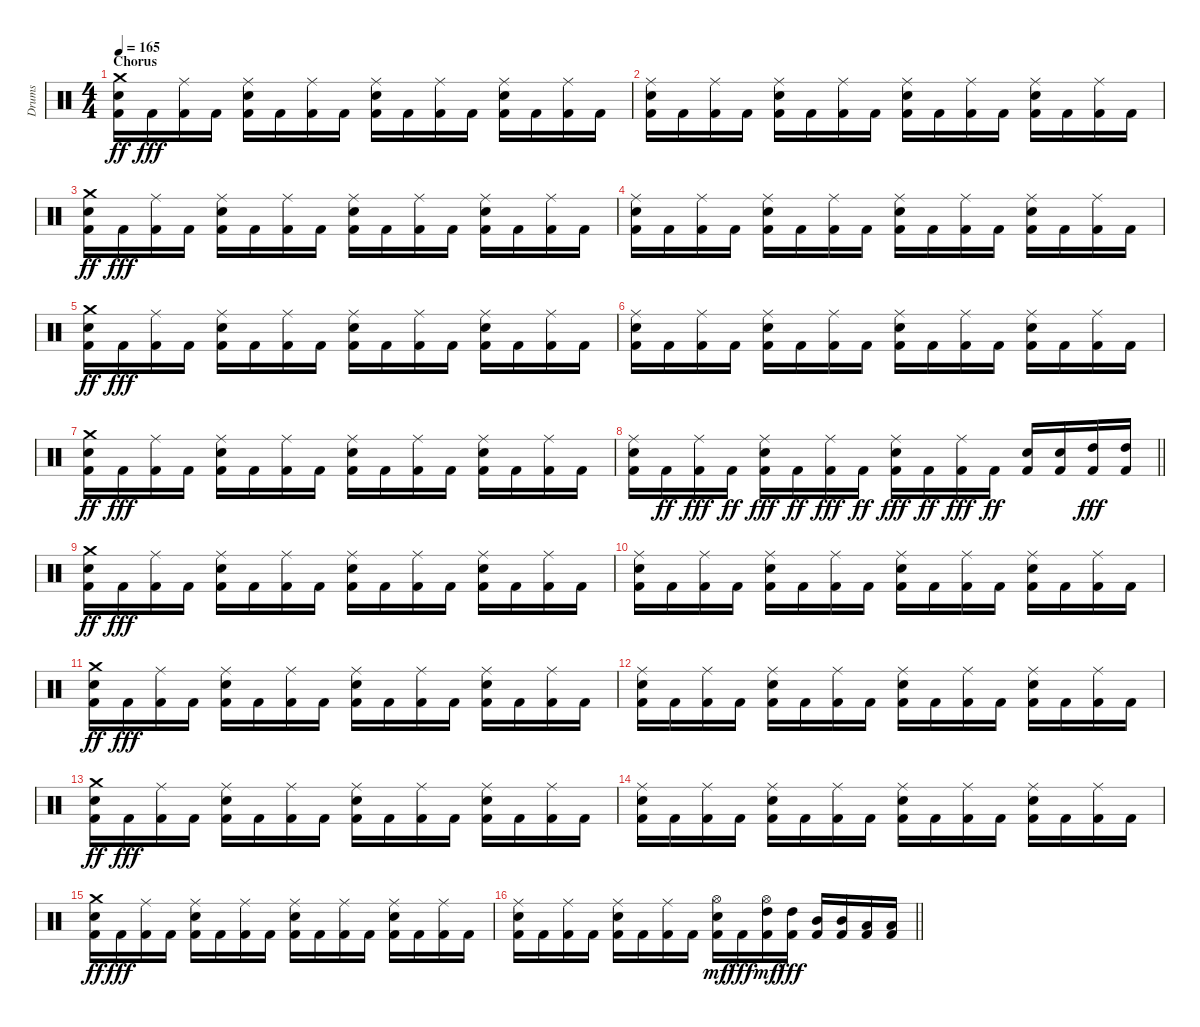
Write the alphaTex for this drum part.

\track ("Drums" "Drums") {instrument percussion}
\staff {score}
\articulation defaults
\ts (4 4)
\section ("" "Chorus")
\tempo 165
\clef neutral
\ks c
("Kick (hit) 2" "Snare (hit) 2" "Crash medium (hit)").16{dy ff} "Kick (hit) 2".16{dy fff} ("Kick (hit) 2" "Ride (middle)").16 "Kick (hit) 2".16 ("Kick (hit) 2" "Snare (hit) 2" "Ride (middle)").16 "Kick (hit) 2".16 ("Kick (hit) 2" "Ride (middle)").16 "Kick (hit) 2".16 ("Kick (hit) 2" "Snare (hit) 2" "Ride (middle)").16 "Kick (hit) 2".16 ("Kick (hit) 2" "Ride (middle)").16 "Kick (hit) 2".16 ("Kick (hit) 2" "Snare (hit) 2" "Ride (middle)").16 "Kick (hit) 2".16 ("Kick (hit) 2" "Ride (middle)").16 "Kick (hit) 2".16 |
("Kick (hit) 2" "Snare (hit) 2" "Ride (middle)").16 "Kick (hit) 2".16 ("Kick (hit) 2" "Ride (middle)").16 "Kick (hit) 2".16 ("Kick (hit) 2" "Snare (hit) 2" "Ride (middle)").16 "Kick (hit) 2".16 ("Kick (hit) 2" "Ride (middle)").16 "Kick (hit) 2".16 ("Kick (hit) 2" "Snare (hit) 2" "Ride (middle)").16 "Kick (hit) 2".16 ("Kick (hit) 2" "Ride (middle)").16 "Kick (hit) 2".16 ("Kick (hit) 2" "Snare (hit) 2" "Ride (middle)").16 "Kick (hit) 2".16 ("Kick (hit) 2" "Ride (middle)").16 "Kick (hit) 2".16 |
("Kick (hit) 2" "Snare (hit) 2" "Crash medium (hit)").16{dy ff} "Kick (hit) 2".16{dy fff} ("Kick (hit) 2" "Ride (middle)").16 "Kick (hit) 2".16 ("Kick (hit) 2" "Snare (hit) 2" "Ride (middle)").16 "Kick (hit) 2".16 ("Kick (hit) 2" "Ride (middle)").16 "Kick (hit) 2".16 ("Kick (hit) 2" "Snare (hit) 2" "Ride (middle)").16 "Kick (hit) 2".16 ("Kick (hit) 2" "Ride (middle)").16 "Kick (hit) 2".16 ("Kick (hit) 2" "Snare (hit) 2" "Ride (middle)").16 "Kick (hit) 2".16 ("Kick (hit) 2" "Ride (middle)").16 "Kick (hit) 2".16 |
("Kick (hit) 2" "Snare (hit) 2" "Ride (middle)").16 "Kick (hit) 2".16 ("Kick (hit) 2" "Ride (middle)").16 "Kick (hit) 2".16 ("Kick (hit) 2" "Snare (hit) 2" "Ride (middle)").16 "Kick (hit) 2".16 ("Kick (hit) 2" "Ride (middle)").16 "Kick (hit) 2".16 ("Kick (hit) 2" "Snare (hit) 2" "Ride (middle)").16 "Kick (hit) 2".16 ("Kick (hit) 2" "Ride (middle)").16 "Kick (hit) 2".16 ("Kick (hit) 2" "Snare (hit) 2" "Ride (middle)").16 "Kick (hit) 2".16 ("Kick (hit) 2" "Ride (middle)").16 "Kick (hit) 2".16 |
("Kick (hit) 2" "Snare (hit) 2" "Crash medium (hit)").16{dy ff} "Kick (hit) 2".16{dy fff} ("Kick (hit) 2" "Ride (middle)").16 "Kick (hit) 2".16 ("Kick (hit) 2" "Snare (hit) 2" "Ride (middle)").16 "Kick (hit) 2".16 ("Kick (hit) 2" "Ride (middle)").16 "Kick (hit) 2".16 ("Kick (hit) 2" "Snare (hit) 2" "Ride (middle)").16 "Kick (hit) 2".16 ("Kick (hit) 2" "Ride (middle)").16 "Kick (hit) 2".16 ("Kick (hit) 2" "Snare (hit) 2" "Ride (middle)").16 "Kick (hit) 2".16 ("Kick (hit) 2" "Ride (middle)").16 "Kick (hit) 2".16 |
("Kick (hit) 2" "Snare (hit) 2" "Ride (middle)").16 "Kick (hit) 2".16 ("Kick (hit) 2" "Ride (middle)").16 "Kick (hit) 2".16 ("Kick (hit) 2" "Snare (hit) 2" "Ride (middle)").16 "Kick (hit) 2".16 ("Kick (hit) 2" "Ride (middle)").16 "Kick (hit) 2".16 ("Kick (hit) 2" "Snare (hit) 2" "Ride (middle)").16 "Kick (hit) 2".16 ("Kick (hit) 2" "Ride (middle)").16 "Kick (hit) 2".16 ("Kick (hit) 2" "Snare (hit) 2" "Ride (middle)").16 "Kick (hit) 2".16 ("Kick (hit) 2" "Ride (middle)").16 "Kick (hit) 2".16 |
("Kick (hit) 2" "Snare (hit) 2" "Crash medium (hit)").16{dy ff} "Kick (hit) 2".16{dy fff} ("Kick (hit) 2" "Ride (middle)").16 "Kick (hit) 2".16 ("Kick (hit) 2" "Snare (hit) 2" "Ride (middle)").16 "Kick (hit) 2".16 ("Kick (hit) 2" "Ride (middle)").16 "Kick (hit) 2".16 ("Kick (hit) 2" "Snare (hit) 2" "Ride (middle)").16 "Kick (hit) 2".16 ("Kick (hit) 2" "Ride (middle)").16 "Kick (hit) 2".16 ("Kick (hit) 2" "Snare (hit) 2" "Ride (middle)").16 "Kick (hit) 2".16 ("Kick (hit) 2" "Ride (middle)").16 "Kick (hit) 2".16 |
\barLineRight lightlight
("Kick (hit) 2" "Snare (hit) 2" "Ride (middle)").16 "Kick (hit) 2".16{dy ff} ("Kick (hit) 2" "Ride (middle)").16{dy fff} "Kick (hit) 2".16{dy ff} ("Kick (hit) 2" "Snare (hit) 2" "Ride (middle)").16{dy fff} "Kick (hit) 2".16{dy ff} ("Kick (hit) 2" "Ride (middle)").16{dy fff} "Kick (hit) 2".16{dy ff} ("Kick (hit) 2" "Snare (hit) 2" "Ride (middle)").16{dy fff} "Kick (hit) 2".16{dy ff} ("Kick (hit) 2" "Ride (middle)").16{dy fff} "Kick (hit) 2".16{dy ff} ("Kick (hit) 2" "Snare (hit) 2").16 ("Kick (hit) 2" "Snare (hit) 2").16 ("Kick (hit) 2" "High Tom (hit)").16{dy fff} ("Kick (hit) 2" "High Tom (hit)").16 |
("Kick (hit) 2" "Snare (hit) 2" "Crash medium (hit)").16{dy ff} "Kick (hit) 2".16{dy fff} ("Kick (hit) 2" "Ride (middle)").16 "Kick (hit) 2".16 ("Kick (hit) 2" "Snare (hit) 2" "Ride (middle)").16 "Kick (hit) 2".16 ("Kick (hit) 2" "Ride (middle)").16 "Kick (hit) 2".16 ("Kick (hit) 2" "Snare (hit) 2" "Ride (middle)").16 "Kick (hit) 2".16 ("Kick (hit) 2" "Ride (middle)").16 "Kick (hit) 2".16 ("Kick (hit) 2" "Snare (hit) 2" "Ride (middle)").16 "Kick (hit) 2".16 ("Kick (hit) 2" "Ride (middle)").16 "Kick (hit) 2".16 |
("Kick (hit) 2" "Snare (hit) 2" "Ride (middle)").16 "Kick (hit) 2".16 ("Kick (hit) 2" "Ride (middle)").16 "Kick (hit) 2".16 ("Kick (hit) 2" "Snare (hit) 2" "Ride (middle)").16 "Kick (hit) 2".16 ("Kick (hit) 2" "Ride (middle)").16 "Kick (hit) 2".16 ("Kick (hit) 2" "Snare (hit) 2" "Ride (middle)").16 "Kick (hit) 2".16 ("Kick (hit) 2" "Ride (middle)").16 "Kick (hit) 2".16 ("Kick (hit) 2" "Snare (hit) 2" "Ride (middle)").16 "Kick (hit) 2".16 ("Kick (hit) 2" "Ride (middle)").16 "Kick (hit) 2".16 |
("Kick (hit) 2" "Snare (hit) 2" "Crash medium (hit)").16{dy ff} "Kick (hit) 2".16{dy fff} ("Kick (hit) 2" "Ride (middle)").16 "Kick (hit) 2".16 ("Kick (hit) 2" "Snare (hit) 2" "Ride (middle)").16 "Kick (hit) 2".16 ("Kick (hit) 2" "Ride (middle)").16 "Kick (hit) 2".16 ("Kick (hit) 2" "Snare (hit) 2" "Ride (middle)").16 "Kick (hit) 2".16 ("Kick (hit) 2" "Ride (middle)").16 "Kick (hit) 2".16 ("Kick (hit) 2" "Snare (hit) 2" "Ride (middle)").16 "Kick (hit) 2".16 ("Kick (hit) 2" "Ride (middle)").16 "Kick (hit) 2".16 |
("Kick (hit) 2" "Snare (hit) 2" "Ride (middle)").16 "Kick (hit) 2".16 ("Kick (hit) 2" "Ride (middle)").16 "Kick (hit) 2".16 ("Kick (hit) 2" "Snare (hit) 2" "Ride (middle)").16 "Kick (hit) 2".16 ("Kick (hit) 2" "Ride (middle)").16 "Kick (hit) 2".16 ("Kick (hit) 2" "Snare (hit) 2" "Ride (middle)").16 "Kick (hit) 2".16 ("Kick (hit) 2" "Ride (middle)").16 "Kick (hit) 2".16 ("Kick (hit) 2" "Snare (hit) 2" "Ride (middle)").16 "Kick (hit) 2".16 ("Kick (hit) 2" "Ride (middle)").16 "Kick (hit) 2".16 |
("Kick (hit) 2" "Snare (hit) 2" "Crash medium (hit)").16{dy ff} "Kick (hit) 2".16{dy fff} ("Kick (hit) 2" "Ride (middle)").16 "Kick (hit) 2".16 ("Kick (hit) 2" "Snare (hit) 2" "Ride (middle)").16 "Kick (hit) 2".16 ("Kick (hit) 2" "Ride (middle)").16 "Kick (hit) 2".16 ("Kick (hit) 2" "Snare (hit) 2" "Ride (middle)").16 "Kick (hit) 2".16 ("Kick (hit) 2" "Ride (middle)").16 "Kick (hit) 2".16 ("Kick (hit) 2" "Snare (hit) 2" "Ride (middle)").16 "Kick (hit) 2".16 ("Kick (hit) 2" "Ride (middle)").16 "Kick (hit) 2".16 |
("Kick (hit) 2" "Snare (hit) 2" "Ride (middle)").16 "Kick (hit) 2".16 ("Kick (hit) 2" "Ride (middle)").16 "Kick (hit) 2".16 ("Kick (hit) 2" "Snare (hit) 2" "Ride (middle)").16 "Kick (hit) 2".16 ("Kick (hit) 2" "Ride (middle)").16 "Kick (hit) 2".16 ("Kick (hit) 2" "Snare (hit) 2" "Ride (middle)").16 "Kick (hit) 2".16 ("Kick (hit) 2" "Ride (middle)").16 "Kick (hit) 2".16 ("Kick (hit) 2" "Snare (hit) 2" "Ride (middle)").16 "Kick (hit) 2".16 ("Kick (hit) 2" "Ride (middle)").16 "Kick (hit) 2".16 |
("Kick (hit) 2" "Snare (hit) 2" "Crash medium (hit)").16{dy ff} "Kick (hit) 2".16{dy fff} ("Kick (hit) 2" "Ride (middle)").16 "Kick (hit) 2".16 ("Kick (hit) 2" "Snare (hit) 2" "Ride (middle)").16 "Kick (hit) 2".16 ("Kick (hit) 2" "Ride (middle)").16 "Kick (hit) 2".16 ("Kick (hit) 2" "Snare (hit) 2" "Ride (middle)").16 "Kick (hit) 2".16 ("Kick (hit) 2" "Ride (middle)").16 "Kick (hit) 2".16 ("Kick (hit) 2" "Snare (hit) 2" "Ride (middle)").16 "Kick (hit) 2".16 ("Kick (hit) 2" "Ride (middle)").16 "Kick (hit) 2".16 |
\barLineRight lightlight
("Kick (hit) 2" "Snare (hit) 2" "Ride (middle)").16 "Kick (hit) 2".16 ("Kick (hit) 2" "Ride (middle)").16 "Kick (hit) 2".16 ("Kick (hit) 2" "Snare (hit) 2" "Ride (middle)").16 "Kick (hit) 2".16 ("Kick (hit) 2" "Ride (middle)").16 "Kick (hit) 2".16 ("Kick (hit) 2" "Snare (hit) 2" "Hi-Hat (open)").16{dy mf} "Kick (hit) 2".16{dy fff} ("Kick (hit) 2" "High Tom (hit)" "Hi-Hat (open)").16{dy mf} ("Kick (hit) 2" "High Tom (hit)").16{dy fff} ("Kick (hit) 2" "Mid Tom (hit)").16 ("Kick (hit) 2" "Mid Tom (hit)").16 ("Kick (hit) 2" "Low Tom (hit)").16 ("Kick (hit) 2" "Low Tom (hit)").16
